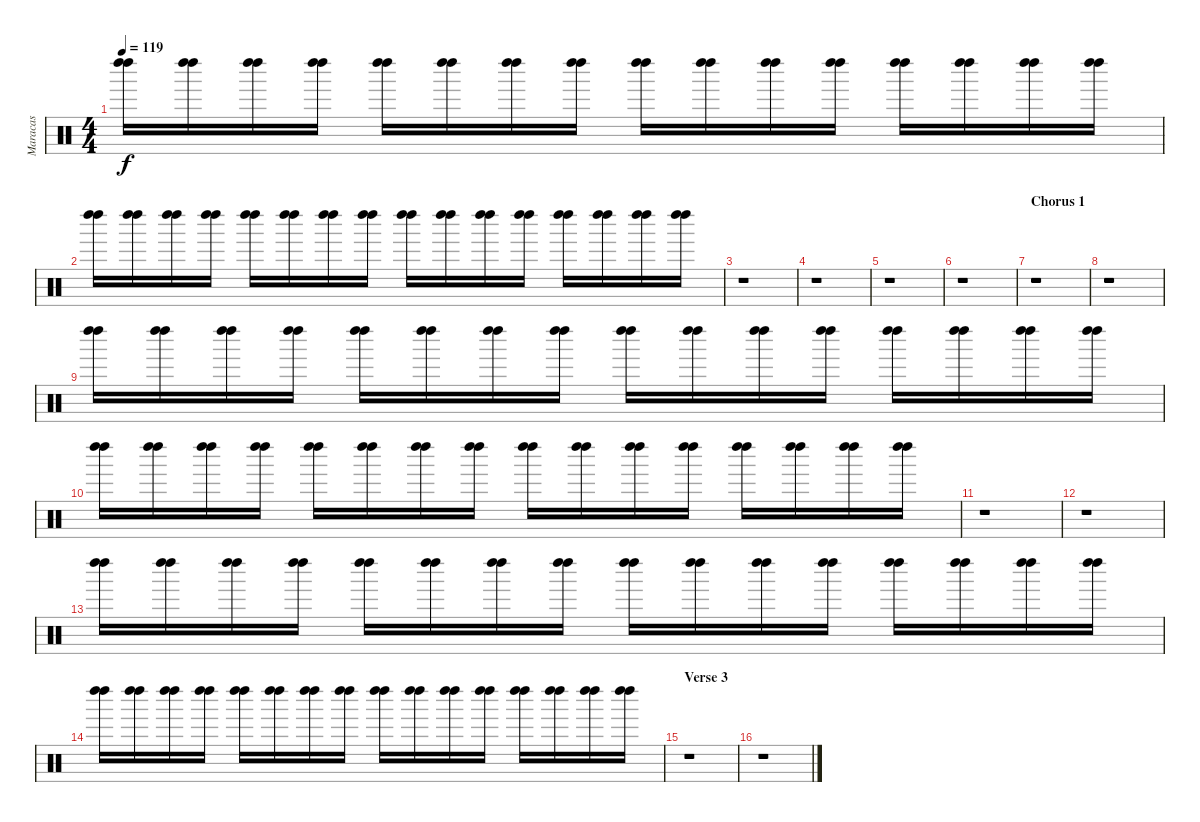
\track ("Maracas" "Maracas") {instrument percussion}
\staff {score}
\articulation defaults
\ts (4 4)
\tempo 119
\clef neutral
\ks c
("Left Maraca (hit)" "Left Maraca (hit)").16{dy f} ("Left Maraca (hit)" "Left Maraca (hit)").16 ("Left Maraca (hit)" "Left Maraca (hit)").16 ("Left Maraca (hit)" "Left Maraca (hit)").16 ("Left Maraca (hit)" "Left Maraca (hit)").16 ("Left Maraca (hit)" "Left Maraca (hit)").16 ("Left Maraca (hit)" "Left Maraca (hit)").16 ("Left Maraca (hit)" "Left Maraca (hit)").16 ("Left Maraca (hit)" "Left Maraca (hit)").16 ("Left Maraca (hit)" "Left Maraca (hit)").16 ("Left Maraca (hit)" "Left Maraca (hit)").16 ("Left Maraca (hit)" "Left Maraca (hit)").16 ("Left Maraca (hit)" "Left Maraca (hit)").16 ("Left Maraca (hit)" "Left Maraca (hit)").16 ("Left Maraca (hit)" "Left Maraca (hit)").16 ("Left Maraca (hit)" "Left Maraca (hit)").16 |
("Left Maraca (hit)" "Left Maraca (hit)").16 ("Left Maraca (hit)" "Left Maraca (hit)").16 ("Left Maraca (hit)" "Left Maraca (hit)").16 ("Left Maraca (hit)" "Left Maraca (hit)").16 ("Left Maraca (hit)" "Left Maraca (hit)").16 ("Left Maraca (hit)" "Left Maraca (hit)").16 ("Left Maraca (hit)" "Left Maraca (hit)").16 ("Left Maraca (hit)" "Left Maraca (hit)").16 ("Left Maraca (hit)" "Left Maraca (hit)").16 ("Left Maraca (hit)" "Left Maraca (hit)").16 ("Left Maraca (hit)" "Left Maraca (hit)").16 ("Left Maraca (hit)" "Left Maraca (hit)").16 ("Left Maraca (hit)" "Left Maraca (hit)").16 ("Left Maraca (hit)" "Left Maraca (hit)").16 ("Left Maraca (hit)" "Left Maraca (hit)").16 ("Left Maraca (hit)" "Left Maraca (hit)").16 |
r.1 |
r.1 |
r.1 |
r.1 |
\section ("" "Chorus 1")
r.1 |
r.1 |
("Left Maraca (hit)" "Left Maraca (hit)").16 ("Left Maraca (hit)" "Left Maraca (hit)").16 ("Left Maraca (hit)" "Left Maraca (hit)").16 ("Left Maraca (hit)" "Left Maraca (hit)").16 ("Left Maraca (hit)" "Left Maraca (hit)").16 ("Left Maraca (hit)" "Left Maraca (hit)").16 ("Left Maraca (hit)" "Left Maraca (hit)").16 ("Left Maraca (hit)" "Left Maraca (hit)").16 ("Left Maraca (hit)" "Left Maraca (hit)").16 ("Left Maraca (hit)" "Left Maraca (hit)").16 ("Left Maraca (hit)" "Left Maraca (hit)").16 ("Left Maraca (hit)" "Left Maraca (hit)").16 ("Left Maraca (hit)" "Left Maraca (hit)").16 ("Left Maraca (hit)" "Left Maraca (hit)").16 ("Left Maraca (hit)" "Left Maraca (hit)").16 ("Left Maraca (hit)" "Left Maraca (hit)").16 |
("Left Maraca (hit)" "Left Maraca (hit)").16 ("Left Maraca (hit)" "Left Maraca (hit)").16 ("Left Maraca (hit)" "Left Maraca (hit)").16 ("Left Maraca (hit)" "Left Maraca (hit)").16 ("Left Maraca (hit)" "Left Maraca (hit)").16 ("Left Maraca (hit)" "Left Maraca (hit)").16 ("Left Maraca (hit)" "Left Maraca (hit)").16 ("Left Maraca (hit)" "Left Maraca (hit)").16 ("Left Maraca (hit)" "Left Maraca (hit)").16 ("Left Maraca (hit)" "Left Maraca (hit)").16 ("Left Maraca (hit)" "Left Maraca (hit)").16 ("Left Maraca (hit)" "Left Maraca (hit)").16 ("Left Maraca (hit)" "Left Maraca (hit)").16 ("Left Maraca (hit)" "Left Maraca (hit)").16 ("Left Maraca (hit)" "Left Maraca (hit)").16 ("Left Maraca (hit)" "Left Maraca (hit)").16 |
r.1 |
r.1 |
("Left Maraca (hit)" "Left Maraca (hit)").16 ("Left Maraca (hit)" "Left Maraca (hit)").16 ("Left Maraca (hit)" "Left Maraca (hit)").16 ("Left Maraca (hit)" "Left Maraca (hit)").16 ("Left Maraca (hit)" "Left Maraca (hit)").16 ("Left Maraca (hit)" "Left Maraca (hit)").16 ("Left Maraca (hit)" "Left Maraca (hit)").16 ("Left Maraca (hit)" "Left Maraca (hit)").16 ("Left Maraca (hit)" "Left Maraca (hit)").16 ("Left Maraca (hit)" "Left Maraca (hit)").16 ("Left Maraca (hit)" "Left Maraca (hit)").16 ("Left Maraca (hit)" "Left Maraca (hit)").16 ("Left Maraca (hit)" "Left Maraca (hit)").16 ("Left Maraca (hit)" "Left Maraca (hit)").16 ("Left Maraca (hit)" "Left Maraca (hit)").16 ("Left Maraca (hit)" "Left Maraca (hit)").16 |
("Left Maraca (hit)" "Left Maraca (hit)").16 ("Left Maraca (hit)" "Left Maraca (hit)").16 ("Left Maraca (hit)" "Left Maraca (hit)").16 ("Left Maraca (hit)" "Left Maraca (hit)").16 ("Left Maraca (hit)" "Left Maraca (hit)").16 ("Left Maraca (hit)" "Left Maraca (hit)").16 ("Left Maraca (hit)" "Left Maraca (hit)").16 ("Left Maraca (hit)" "Left Maraca (hit)").16 ("Left Maraca (hit)" "Left Maraca (hit)").16 ("Left Maraca (hit)" "Left Maraca (hit)").16 ("Left Maraca (hit)" "Left Maraca (hit)").16 ("Left Maraca (hit)" "Left Maraca (hit)").16 ("Left Maraca (hit)" "Left Maraca (hit)").16 ("Left Maraca (hit)" "Left Maraca (hit)").16 ("Left Maraca (hit)" "Left Maraca (hit)").16 ("Left Maraca (hit)" "Left Maraca (hit)").16 |
\section ("" "Verse 3")
r.1 |
r.1
